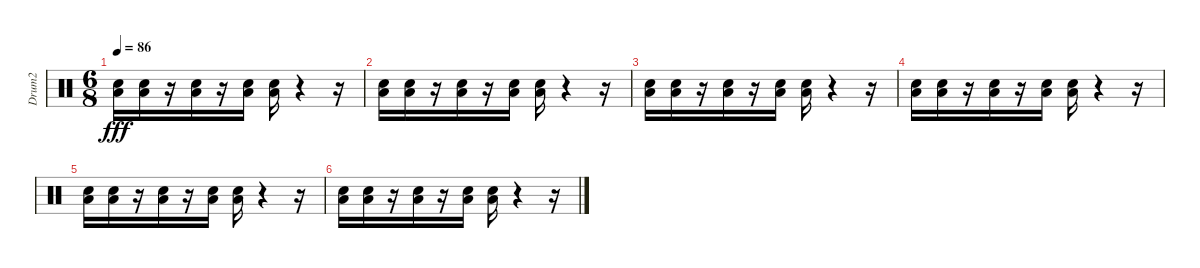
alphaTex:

\track ("Drum2" "Drum2") {instrument percussion}
\staff {score}
\articulation defaults
\ts (6 8)
\tempo 86
\clef neutral
\ks c
("Snare (hit) 2" "Low Floor Tom (hit)").16{dy fff volume 7} ("Snare (hit) 2" "Low Floor Tom (hit)").16{volume 7} r.16 ("Snare (hit) 2" "Low Floor Tom (hit)").16{volume 7} r.16 ("Snare (hit) 2" "Low Floor Tom (hit)").16{volume 8} ("Snare (hit) 2" "Low Floor Tom (hit)").16 r.4 r.16 |
("Snare (hit) 2" "Low Floor Tom (hit)").16{volume 8} ("Snare (hit) 2" "Low Floor Tom (hit)").16{volume 8} r.16 ("Snare (hit) 2" "Low Floor Tom (hit)").16{volume 8} r.16 ("Snare (hit) 2" "Low Floor Tom (hit)").16{volume 8} ("Snare (hit) 2" "Low Floor Tom (hit)").16{volume 8} r.4 r.16 |
("Snare (hit) 2" "Low Floor Tom (hit)").16{volume 9} ("Snare (hit) 2" "Low Floor Tom (hit)").16{volume 9} r.16 ("Snare (hit) 2" "Low Floor Tom (hit)").16{volume 9} r.16 ("Snare (hit) 2" "Low Floor Tom (hit)").16{volume 9} ("Snare (hit) 2" "Low Floor Tom (hit)").16 r.4 r.16 |
("Snare (hit) 2" "Low Floor Tom (hit)").16{volume 10} ("Snare (hit) 2" "Low Floor Tom (hit)").16{volume 10} r.16 ("Snare (hit) 2" "Low Floor Tom (hit)").16{volume 10} r.16 ("Snare (hit) 2" "Low Floor Tom (hit)").16{volume 10} ("Snare (hit) 2" "Low Floor Tom (hit)").16{volume 10} r.4 r.16 |
("Snare (hit) 2" "Low Floor Tom (hit)").16{volume 11} ("Snare (hit) 2" "Low Floor Tom (hit)").16{volume 11} r.16 ("Snare (hit) 2" "Low Floor Tom (hit)").16{volume 11} r.16 ("Snare (hit) 2" "Low Floor Tom (hit)").16{volume 11} ("Snare (hit) 2" "Low Floor Tom (hit)").16 r.4 r.16 |
("Snare (hit) 2" "Low Floor Tom (hit)").16{volume 12} ("Snare (hit) 2" "Low Floor Tom (hit)").16{volume 12} r.16 ("Snare (hit) 2" "Low Floor Tom (hit)").16{volume 12} r.16 ("Snare (hit) 2" "Low Floor Tom (hit)").16{volume 12} ("Snare (hit) 2" "Low Floor Tom (hit)").16{volume 12} r.4 r.16
